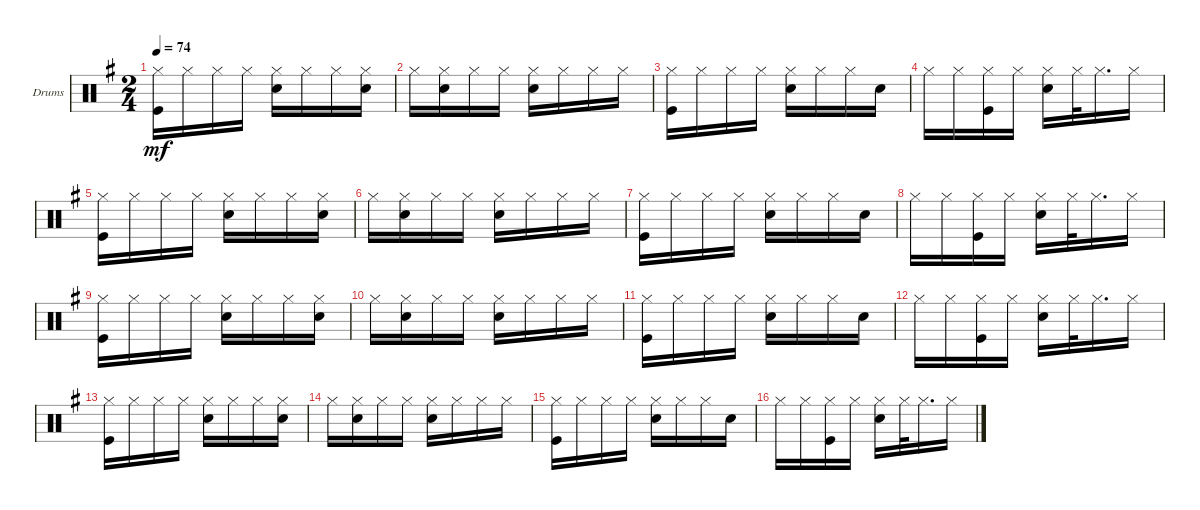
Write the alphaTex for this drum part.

\defaultSystemsLayout 4
\bracketExtendMode groupsimilarinstruments
\firstSystemTrackNameOrientation horizontal
\otherSystemsTrackNameOrientation horizontal
\track ("Drumkit" "Drums") {instrument percussion}
\staff {score}
\articulation defaults
\ts (2 4)
\tempo 74
\clef neutral
\ks eminor
("Hi-Hat (closed)" "Kick (hit)").16{dy mf} "Hi-Hat (closed)".16 "Hi-Hat (closed)".16 "Hi-Hat (closed)".16 ("Hi-Hat (closed)" "Snare (hit) 2").16 "Hi-Hat (closed)".16 "Hi-Hat (closed)".16 ("Hi-Hat (closed)" "Snare (hit) 2").16 |
"Hi-Hat (closed)".16 ("Hi-Hat (closed)" "Snare (hit) 2").16 "Hi-Hat (closed)".16 "Hi-Hat (closed)".16 ("Hi-Hat (closed)" "Snare (hit) 2").16 "Hi-Hat (closed)".16 "Hi-Hat (closed)".16 "Hi-Hat (closed)".16 |
("Hi-Hat (closed)" "Kick (hit)").16 "Hi-Hat (closed)".16 "Hi-Hat (closed)".16 "Hi-Hat (closed)".16 ("Hi-Hat (closed)" "Snare (hit) 2").16 "Hi-Hat (closed)".16 "Hi-Hat (closed)".16 "Snare (hit) 2".16 |
"Hi-Hat (closed)".16 "Hi-Hat (closed)".16 ("Hi-Hat (closed)" "Kick (hit)").16 "Hi-Hat (closed)".16 ("Hi-Hat (closed)" "Snare (hit) 2").16 "Hi-Hat (closed)".32 "Hi-Hat (closed)".16{d} "Hi-Hat (closed)".16 |
("Hi-Hat (closed)" "Kick (hit)").16 "Hi-Hat (closed)".16 "Hi-Hat (closed)".16 "Hi-Hat (closed)".16 ("Hi-Hat (closed)" "Snare (hit) 2").16 "Hi-Hat (closed)".16 "Hi-Hat (closed)".16 ("Hi-Hat (closed)" "Snare (hit) 2").16 |
"Hi-Hat (closed)".16 ("Hi-Hat (closed)" "Snare (hit) 2").16 "Hi-Hat (closed)".16 "Hi-Hat (closed)".16 ("Hi-Hat (closed)" "Snare (hit) 2").16 "Hi-Hat (closed)".16 "Hi-Hat (closed)".16 "Hi-Hat (closed)".16 |
("Hi-Hat (closed)" "Kick (hit)").16 "Hi-Hat (closed)".16 "Hi-Hat (closed)".16 "Hi-Hat (closed)".16 ("Hi-Hat (closed)" "Snare (hit) 2").16 "Hi-Hat (closed)".16 "Hi-Hat (closed)".16 "Snare (hit) 2".16 |
"Hi-Hat (closed)".16 "Hi-Hat (closed)".16 ("Hi-Hat (closed)" "Kick (hit)").16 "Hi-Hat (closed)".16 ("Hi-Hat (closed)" "Snare (hit) 2").16 "Hi-Hat (closed)".32 "Hi-Hat (closed)".16{d} "Hi-Hat (closed)".16 |
("Hi-Hat (closed)" "Kick (hit)").16 "Hi-Hat (closed)".16 "Hi-Hat (closed)".16 "Hi-Hat (closed)".16 ("Hi-Hat (closed)" "Snare (hit) 2").16 "Hi-Hat (closed)".16 "Hi-Hat (closed)".16 ("Hi-Hat (closed)" "Snare (hit) 2").16 |
"Hi-Hat (closed)".16 ("Hi-Hat (closed)" "Snare (hit) 2").16 "Hi-Hat (closed)".16 "Hi-Hat (closed)".16 ("Hi-Hat (closed)" "Snare (hit) 2").16 "Hi-Hat (closed)".16 "Hi-Hat (closed)".16 "Hi-Hat (closed)".16 |
("Hi-Hat (closed)" "Kick (hit)").16 "Hi-Hat (closed)".16 "Hi-Hat (closed)".16 "Hi-Hat (closed)".16 ("Hi-Hat (closed)" "Snare (hit) 2").16 "Hi-Hat (closed)".16 "Hi-Hat (closed)".16 "Snare (hit) 2".16 |
"Hi-Hat (closed)".16 "Hi-Hat (closed)".16 ("Hi-Hat (closed)" "Kick (hit)").16 "Hi-Hat (closed)".16 ("Hi-Hat (closed)" "Snare (hit) 2").16 "Hi-Hat (closed)".32 "Hi-Hat (closed)".16{d} "Hi-Hat (closed)".16 |
("Hi-Hat (closed)" "Kick (hit)").16 "Hi-Hat (closed)".16 "Hi-Hat (closed)".16 "Hi-Hat (closed)".16 ("Hi-Hat (closed)" "Snare (hit) 2").16 "Hi-Hat (closed)".16 "Hi-Hat (closed)".16 ("Hi-Hat (closed)" "Snare (hit) 2").16 |
"Hi-Hat (closed)".16 ("Hi-Hat (closed)" "Snare (hit) 2").16 "Hi-Hat (closed)".16 "Hi-Hat (closed)".16 ("Hi-Hat (closed)" "Snare (hit) 2").16 "Hi-Hat (closed)".16 "Hi-Hat (closed)".16 "Hi-Hat (closed)".16 |
("Hi-Hat (closed)" "Kick (hit)").16 "Hi-Hat (closed)".16 "Hi-Hat (closed)".16 "Hi-Hat (closed)".16 ("Hi-Hat (closed)" "Snare (hit) 2").16 "Hi-Hat (closed)".16 "Hi-Hat (closed)".16 "Snare (hit) 2".16 |
"Hi-Hat (closed)".16 "Hi-Hat (closed)".16 ("Hi-Hat (closed)" "Kick (hit)").16 "Hi-Hat (closed)".16 ("Hi-Hat (closed)" "Snare (hit) 2").16 "Hi-Hat (closed)".32 "Hi-Hat (closed)".16{d} "Hi-Hat (closed)".16
